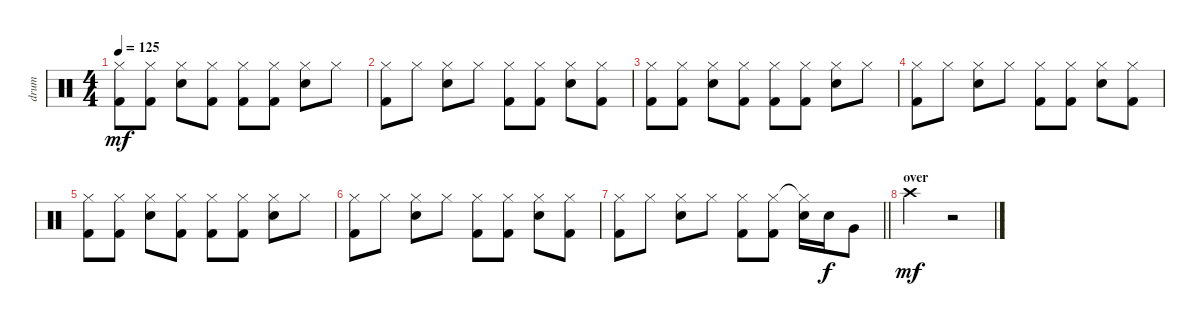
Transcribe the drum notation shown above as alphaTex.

\track ("drum" "drum") {instrument percussion}
\staff {score}
\articulation defaults
\ts (4 4)
\tempo 125
\clef neutral
\ks c
("Hi-Hat (closed)" "Kick (hit) 2").8{dy mf} ("Hi-Hat (closed)" "Kick (hit) 2").8 ("Hi-Hat (closed)" "Electric Snare (hit)").8 ("Hi-Hat (closed)" "Kick (hit) 2").8 ("Hi-Hat (closed)" "Kick (hit) 2").8 ("Hi-Hat (closed)" "Kick (hit) 2").8 ("Hi-Hat (closed)" "Electric Snare (hit)").8 "Hi-Hat (closed)".8 |
("Hi-Hat (closed)" "Kick (hit) 2").8 "Hi-Hat (closed)".8 ("Hi-Hat (closed)" "Electric Snare (hit)").8 "Hi-Hat (closed)".8 ("Hi-Hat (closed)" "Kick (hit) 2").8 ("Hi-Hat (closed)" "Kick (hit) 2").8 ("Hi-Hat (closed)" "Electric Snare (hit)").8 ("Hi-Hat (closed)" "Kick (hit) 2").8 |
("Hi-Hat (closed)" "Kick (hit) 2").8 ("Hi-Hat (closed)" "Kick (hit) 2").8 ("Hi-Hat (closed)" "Electric Snare (hit)").8 ("Hi-Hat (closed)" "Kick (hit) 2").8 ("Hi-Hat (closed)" "Kick (hit) 2").8 ("Hi-Hat (closed)" "Kick (hit) 2").8 ("Hi-Hat (closed)" "Electric Snare (hit)").8 "Hi-Hat (closed)".8 |
("Hi-Hat (closed)" "Kick (hit) 2").8 "Hi-Hat (closed)".8 ("Hi-Hat (closed)" "Electric Snare (hit)").8 "Hi-Hat (closed)".8 ("Hi-Hat (closed)" "Kick (hit) 2").8 ("Hi-Hat (closed)" "Kick (hit) 2").8 ("Hi-Hat (closed)" "Electric Snare (hit)").8 ("Hi-Hat (closed)" "Kick (hit) 2").8 |
("Hi-Hat (closed)" "Kick (hit) 2").8 ("Hi-Hat (closed)" "Kick (hit) 2").8 ("Hi-Hat (closed)" "Electric Snare (hit)").8 ("Hi-Hat (closed)" "Kick (hit) 2").8 ("Hi-Hat (closed)" "Kick (hit) 2").8 ("Hi-Hat (closed)" "Kick (hit) 2").8 ("Hi-Hat (closed)" "Electric Snare (hit)").8 "Hi-Hat (closed)".8 |
("Hi-Hat (closed)" "Kick (hit) 2").8 "Hi-Hat (closed)".8 ("Hi-Hat (closed)" "Electric Snare (hit)").8 "Hi-Hat (closed)".8 ("Hi-Hat (closed)" "Kick (hit) 2").8 ("Hi-Hat (closed)" "Kick (hit) 2").8 ("Hi-Hat (closed)" "Electric Snare (hit)").8 ("Hi-Hat (closed)" "Kick (hit) 2").8 |
\barLineRight lightlight
("Hi-Hat (closed)" "Kick (hit) 2").8 "Hi-Hat (closed)".8 ("Hi-Hat (closed)" "Electric Snare (hit)").8 "Hi-Hat (closed)".8 ("Hi-Hat (closed)" "Kick (hit) 2").8 ("Hi-Hat (closed)" "Kick (hit) 2").8 ("Hi-Hat (closed)"{t} "Electric Snare (hit)").16 "Electric Snare (hit)".16{dy f} "Very Low Tom (hit)".8 |
\section ("" "over")
"Crash high (hit)".2{dy mf} r.2
